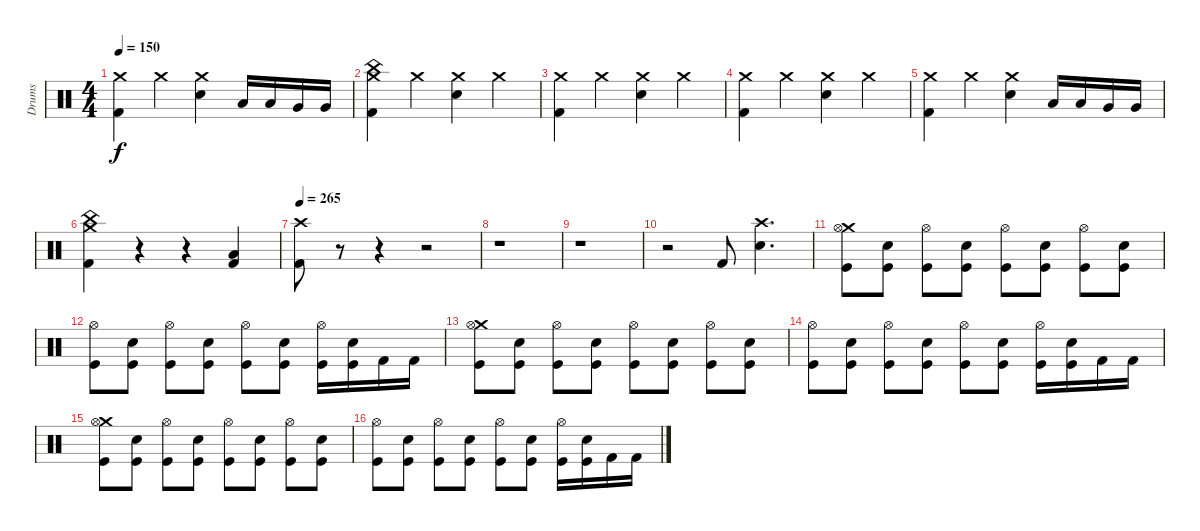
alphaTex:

\track ("Drums" "Drums") {instrument percussion}
\staff {score}
\articulation defaults
\ts (4 4)
\tempo 150
\clef neutral
\ks c
("Crash medium (hit)" "Kick (hit) 2").4{dy f} "Crash medium (hit)".4 ("Crash medium (hit)" "Electric Snare (hit)").4 "Low Tom (hit)".16 "Low Tom (hit)".16 "Very Low Tom (hit)".16 "Very Low Tom (hit)".16 |
("China (hit)" "Crash medium (hit)" "Kick (hit) 2").4 "Crash medium (hit)".4 ("Crash medium (hit)" "Electric Snare (hit)").4 "Crash medium (hit)".4 |
("Crash medium (hit)" "Kick (hit) 2").4 "Crash medium (hit)".4 ("Crash medium (hit)" "Electric Snare (hit)").4 "Crash medium (hit)".4 |
("Crash medium (hit)" "Kick (hit) 2").4 "Crash medium (hit)".4 ("Crash medium (hit)" "Electric Snare (hit)").4 "Crash medium (hit)".4 |
("Crash medium (hit)" "Kick (hit) 2").4 "Crash medium (hit)".4 ("Crash medium (hit)" "Electric Snare (hit)").4 "Low Tom (hit)".16 "Low Tom (hit)".16 "Very Low Tom (hit)".16 "Very Low Tom (hit)".16 |
("China (hit)" "Crash medium (hit)" "Kick (hit) 2").4 r.4 r.4 ("Low Floor Tom (hit)" "Kick (hit) 2").4 |
\tempo 265
("Crash high (hit)" "Kick (hit) 2").8 r.8 r.4 r.2 |
r.1 |
r.1 |
r.2 "Kick (hit) 2".8 ("Crash high (hit)" "Electric Snare (hit)").4{d} |
("Crash medium (hit)" "Hi-Hat (open)" "Kick (hit)").8 ("Electric Snare (hit)" "Kick (hit)").8 ("Hi-Hat (open)" "Kick (hit)").8 ("Electric Snare (hit)" "Kick (hit)").8 ("Hi-Hat (open)" "Kick (hit)").8 ("Electric Snare (hit)" "Kick (hit)").8 ("Hi-Hat (open)" "Kick (hit)").8 ("Electric Snare (hit)" "Kick (hit)").8 |
("Hi-Hat (open)" "Kick (hit)").8 ("Electric Snare (hit)" "Kick (hit)").8 ("Hi-Hat (open)" "Kick (hit)").8 ("Electric Snare (hit)" "Kick (hit)").8 ("Hi-Hat (open)" "Kick (hit)").8 ("Electric Snare (hit)" "Kick (hit)").8 ("Hi-Hat (open)" "Kick (hit)").16 ("Electric Snare (hit)" "Kick (hit)").16 "Kick (hit) 2".16 "Kick (hit) 2".16 |
("Crash medium (hit)" "Hi-Hat (open)" "Kick (hit)").8 ("Electric Snare (hit)" "Kick (hit)").8 ("Hi-Hat (open)" "Kick (hit)").8 ("Electric Snare (hit)" "Kick (hit)").8 ("Hi-Hat (open)" "Kick (hit)").8 ("Electric Snare (hit)" "Kick (hit)").8 ("Hi-Hat (open)" "Kick (hit)").8 ("Electric Snare (hit)" "Kick (hit)").8 |
("Hi-Hat (open)" "Kick (hit)").8 ("Electric Snare (hit)" "Kick (hit)").8 ("Hi-Hat (open)" "Kick (hit)").8 ("Electric Snare (hit)" "Kick (hit)").8 ("Hi-Hat (open)" "Kick (hit)").8 ("Electric Snare (hit)" "Kick (hit)").8 ("Hi-Hat (open)" "Kick (hit)").16 ("Electric Snare (hit)" "Kick (hit)").16 "Kick (hit) 2".16 "Kick (hit) 2".16 |
("Crash medium (hit)" "Hi-Hat (open)" "Kick (hit)").8 ("Electric Snare (hit)" "Kick (hit)").8 ("Hi-Hat (open)" "Kick (hit)").8 ("Electric Snare (hit)" "Kick (hit)").8 ("Hi-Hat (open)" "Kick (hit)").8 ("Electric Snare (hit)" "Kick (hit)").8 ("Hi-Hat (open)" "Kick (hit)").8 ("Electric Snare (hit)" "Kick (hit)").8 |
("Hi-Hat (open)" "Kick (hit)").8 ("Electric Snare (hit)" "Kick (hit)").8 ("Hi-Hat (open)" "Kick (hit)").8 ("Electric Snare (hit)" "Kick (hit)").8 ("Hi-Hat (open)" "Kick (hit)").8 ("Electric Snare (hit)" "Kick (hit)").8 ("Hi-Hat (open)" "Kick (hit)").16 ("Electric Snare (hit)" "Kick (hit)").16 "Kick (hit) 2".16 "Kick (hit) 2".16
